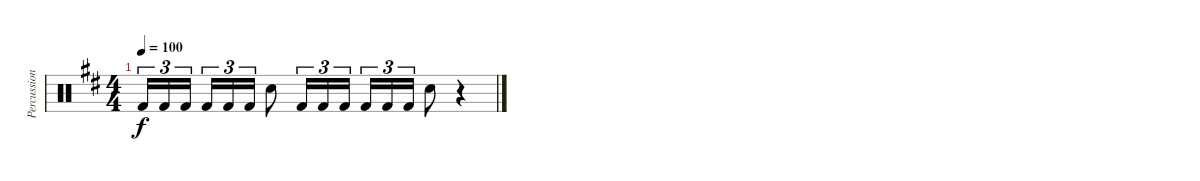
\track ("Percussion" "Percussion") {instrument percussion}
\staff {score}
\articulation defaults
\ts (4 4)
\tempo 100
\clef neutral
\ks d "Kick (hit) 2".16{tu (3 2) dy f} "Kick (hit) 2".16{tu (3 2)} "Kick (hit) 2".16{tu (3 2) beam splitsecondary} "Kick (hit) 2".16{tu (3 2)} "Kick (hit) 2".16{tu (3 2)} "Kick (hit) 2".16{tu (3 2)} "Electric Snare (hit)".8 "Kick (hit) 2".16{tu (3 2)} "Kick (hit) 2".16{tu (3 2)} "Kick (hit) 2".16{tu (3 2)} "Kick (hit) 2".16{tu (3 2)} "Kick (hit) 2".16{tu (3 2)} "Kick (hit) 2".16{tu (3 2)} "Electric Snare (hit)".8
r.4
